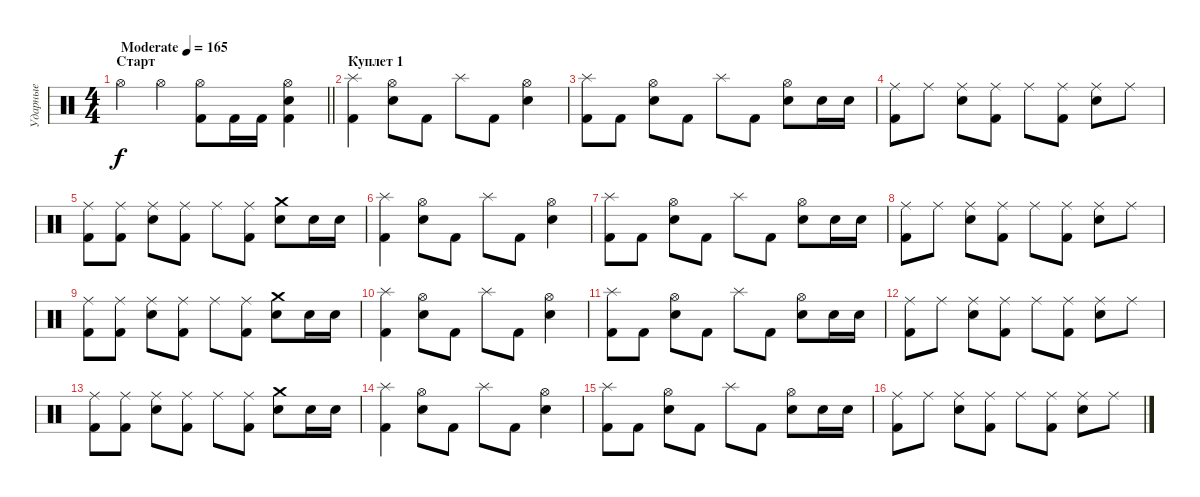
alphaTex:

\track ("Ударные" "Ударные") {instrument percussion}
\staff {score}
\articulation defaults
\ts (4 4)
\section ("" "Старт")
\tempo (165 "Moderate")
\clef neutral
\barLineRight lightlight
\ks c "Hi-Hat (open)".4{dy f volume 13} "Hi-Hat (open)".4
("Hi-Hat (open)" "Kick (hit) 2").8 "Kick (hit) 2".16 "Kick (hit) 2".16 ("Hi-Hat (open)" "Electric Snare (hit)" "Kick (hit) 2").4 |
\section ("" "Куплет 1")
("Splash (hit)" "Kick (hit) 2").4 ("Hi-Hat (open)" "Electric Snare (hit)").8 "Kick (hit) 2".8 "Splash (hit)".8 "Kick (hit) 2".8 ("Hi-Hat (open)" "Electric Snare (hit)").4 |
("Splash (hit)" "Kick (hit) 2").8 "Kick (hit) 2".8 ("Hi-Hat (open)" "Electric Snare (hit)").8 "Kick (hit) 2".8 "Splash (hit)".8 "Kick (hit) 2".8 ("Hi-Hat (open)" "Electric Snare (hit)").8 "Electric Snare (hit)".16 "Electric Snare (hit)".16 |
("Ride (middle)" "Kick (hit) 2").8 "Ride (middle)".8 ("Ride (middle)" "Electric Snare (hit)").8 ("Ride (middle)" "Kick (hit) 2").8 "Ride (middle)".8 ("Ride (middle)" "Kick (hit) 2").8 ("Ride (middle)" "Electric Snare (hit)").8 "Ride (middle)".8 |
("Ride (middle)" "Kick (hit) 2").8 ("Ride (middle)" "Kick (hit) 2").8 ("Ride (middle)" "Electric Snare (hit)").8 ("Ride (middle)" "Kick (hit) 2").8 "Ride (middle)".8 ("Ride (middle)" "Kick (hit) 2").8 ("Crash medium (hit)" "Electric Snare (hit)").8 "Electric Snare (hit)".16 "Electric Snare (hit)".16 |
("Splash (hit)" "Kick (hit) 2").4 ("Hi-Hat (open)" "Electric Snare (hit)").8 "Kick (hit) 2".8 "Splash (hit)".8 "Kick (hit) 2".8 ("Hi-Hat (open)" "Electric Snare (hit)").4 |
("Splash (hit)" "Kick (hit) 2").8 "Kick (hit) 2".8 ("Hi-Hat (open)" "Electric Snare (hit)").8 "Kick (hit) 2".8 "Splash (hit)".8 "Kick (hit) 2".8 ("Hi-Hat (open)" "Electric Snare (hit)").8 "Electric Snare (hit)".16 "Electric Snare (hit)".16 |
("Ride (middle)" "Kick (hit) 2").8 "Ride (middle)".8 ("Ride (middle)" "Electric Snare (hit)").8 ("Ride (middle)" "Kick (hit) 2").8 "Ride (middle)".8 ("Ride (middle)" "Kick (hit) 2").8 ("Ride (middle)" "Electric Snare (hit)").8 "Ride (middle)".8 |
("Ride (middle)" "Kick (hit) 2").8 ("Ride (middle)" "Kick (hit) 2").8 ("Ride (middle)" "Electric Snare (hit)").8 ("Ride (middle)" "Kick (hit) 2").8 "Ride (middle)".8 ("Ride (middle)" "Kick (hit) 2").8 ("Crash medium (hit)" "Electric Snare (hit)").8 "Electric Snare (hit)".16 "Electric Snare (hit)".16 |
("Splash (hit)" "Kick (hit) 2").4 ("Hi-Hat (open)" "Electric Snare (hit)").8 "Kick (hit) 2".8 "Splash (hit)".8 "Kick (hit) 2".8 ("Hi-Hat (open)" "Electric Snare (hit)").4 |
("Splash (hit)" "Kick (hit) 2").8 "Kick (hit) 2".8 ("Hi-Hat (open)" "Electric Snare (hit)").8 "Kick (hit) 2".8 "Splash (hit)".8 "Kick (hit) 2".8 ("Hi-Hat (open)" "Electric Snare (hit)").8 "Electric Snare (hit)".16 "Electric Snare (hit)".16 |
("Ride (middle)" "Kick (hit) 2").8 "Ride (middle)".8 ("Ride (middle)" "Electric Snare (hit)").8 ("Ride (middle)" "Kick (hit) 2").8 "Ride (middle)".8 ("Ride (middle)" "Kick (hit) 2").8 ("Ride (middle)" "Electric Snare (hit)").8 "Ride (middle)".8 |
("Ride (middle)" "Kick (hit) 2").8 ("Ride (middle)" "Kick (hit) 2").8 ("Ride (middle)" "Electric Snare (hit)").8 ("Ride (middle)" "Kick (hit) 2").8 "Ride (middle)".8 ("Ride (middle)" "Kick (hit) 2").8 ("Crash medium (hit)" "Electric Snare (hit)").8 "Electric Snare (hit)".16 "Electric Snare (hit)".16 |
("Splash (hit)" "Kick (hit) 2").4 ("Hi-Hat (open)" "Electric Snare (hit)").8 "Kick (hit) 2".8 "Splash (hit)".8 "Kick (hit) 2".8 ("Hi-Hat (open)" "Electric Snare (hit)").4 |
("Splash (hit)" "Kick (hit) 2").8 "Kick (hit) 2".8 ("Hi-Hat (open)" "Electric Snare (hit)").8 "Kick (hit) 2".8 "Splash (hit)".8 "Kick (hit) 2".8 ("Hi-Hat (open)" "Electric Snare (hit)").8 "Electric Snare (hit)".16 "Electric Snare (hit)".16 |
("Ride (middle)" "Kick (hit) 2").8 "Ride (middle)".8 ("Ride (middle)" "Electric Snare (hit)").8 ("Ride (middle)" "Kick (hit) 2").8 "Ride (middle)".8 ("Ride (middle)" "Kick (hit) 2").8 ("Ride (middle)" "Electric Snare (hit)").8 "Ride (middle)".8
